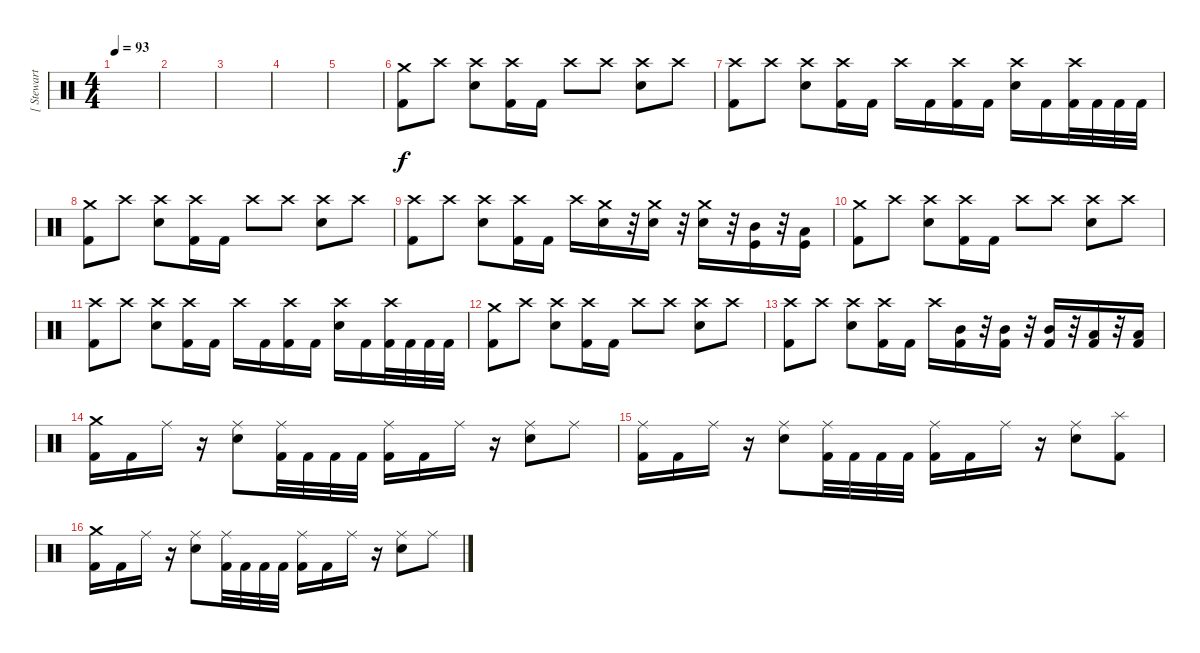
\track ("[ Stewart ]" "[ Stewart ") {instrument percussion}
\staff {score}
\articulation defaults
\ts (4 4)
\tempo 93
\clef neutral
\ks c
|
|
|
|
|
("Kick (hit) 2" "Crash medium (hit)").8 "Crash high (hit)".8 ("Electric Snare (hit)" "Crash high (hit)").8 ("Kick (hit) 2" "Crash high (hit)").16 "Kick (hit) 2".16 "Crash high (hit)".8 "Crash high (hit)".8 ("Electric Snare (hit)" "Crash high (hit)").8 "Crash high (hit)".8 |
("Kick (hit) 2" "Crash high (hit)").8 "Crash high (hit)".8 ("Electric Snare (hit)" "Crash high (hit)").8 ("Kick (hit) 2" "Crash high (hit)").16 "Kick (hit) 2".16 "Crash high (hit)".16 "Kick (hit) 2".16 ("Kick (hit) 2" "Crash high (hit)").16 "Kick (hit) 2".16 ("Electric Snare (hit)" "Crash high (hit)").16 "Kick (hit) 2".16 ("Kick (hit) 2" "Crash high (hit)").32 "Kick (hit) 2".32 "Kick (hit) 2".32 "Kick (hit) 2".32 |
("Kick (hit) 2" "Crash medium (hit)").8 "Crash high (hit)".8 ("Electric Snare (hit)" "Crash high (hit)").8 ("Kick (hit) 2" "Crash high (hit)").16 "Kick (hit) 2".16 "Crash high (hit)".8 "Crash high (hit)".8 ("Electric Snare (hit)" "Crash high (hit)").8 "Crash high (hit)".8 |
("Kick (hit) 2" "Crash high (hit)").8 "Crash high (hit)".8 ("Electric Snare (hit)" "Crash high (hit)").8 ("Kick (hit) 2" "Crash high (hit)").16 "Kick (hit) 2".16 "Crash high (hit)".16 ("Electric Snare (hit)" "Crash medium (hit)").16 r.32 ("Electric Snare (hit)" "Crash medium (hit)").16 r.32 ("Electric Snare (hit)" "Crash medium (hit)").16 r.32 ("Mid Tom (hit)" "Kick (hit)").16 r.32 ("Low Tom (hit)" "Kick (hit)").16 |
("Kick (hit) 2" "Crash medium (hit)").8 "Crash high (hit)".8 ("Electric Snare (hit)" "Crash high (hit)").8 ("Kick (hit) 2" "Crash high (hit)").16 "Kick (hit) 2".16 "Crash high (hit)".8 "Crash high (hit)".8 ("Electric Snare (hit)" "Crash high (hit)").8 "Crash high (hit)".8 |
("Kick (hit) 2" "Crash high (hit)").8 "Crash high (hit)".8 ("Electric Snare (hit)" "Crash high (hit)").8 ("Kick (hit) 2" "Crash high (hit)").16 "Kick (hit) 2".16 "Crash high (hit)".16 "Kick (hit) 2".16 ("Kick (hit) 2" "Crash high (hit)").16 "Kick (hit) 2".16 ("Electric Snare (hit)" "Crash high (hit)").16 "Kick (hit) 2".16 ("Kick (hit) 2" "Crash high (hit)").32 "Kick (hit) 2".32 "Kick (hit) 2".32 "Kick (hit) 2".32 |
("Kick (hit) 2" "Crash medium (hit)").8 "Crash high (hit)".8 ("Electric Snare (hit)" "Crash high (hit)").8 ("Kick (hit) 2" "Crash high (hit)").16 "Kick (hit) 2".16 "Crash high (hit)".8 "Crash high (hit)".8 ("Electric Snare (hit)" "Crash high (hit)").8 "Crash high (hit)".8 |
("Kick (hit) 2" "Crash high (hit)").8 "Crash high (hit)".8 ("Electric Snare (hit)" "Crash high (hit)").8 ("Kick (hit) 2" "Crash high (hit)").16 "Kick (hit) 2".16 "Crash high (hit)".16 ("Mid Tom (hit)" "Kick (hit) 2").16 r.32 ("Mid Tom (hit)" "Kick (hit) 2").16 r.32 ("Mid Tom (hit)" "Kick (hit) 2").16 r.32 ("Low Tom (hit)" "Kick (hit) 2").16 r.32 ("Low Tom (hit)" "Kick (hit) 2").16 |
("Kick (hit) 2" "Crash medium (hit)").16 "Kick (hit) 2".16 "Ride (middle)".16 r.16 ("Electric Snare (hit)" "Ride (middle)").8 ("Kick (hit) 2" "Ride (middle)").32 "Kick (hit) 2".32 "Kick (hit) 2".32 "Kick (hit) 2".32 ("Kick (hit) 2" "Ride (middle)").16 "Kick (hit) 2".16 "Ride (middle)".16 r.16 ("Electric Snare (hit)" "Ride (middle)").8 "Ride (middle)".8 |
("Kick (hit) 2" "Ride (middle)").16 "Kick (hit) 2".16 "Ride (middle)".16 r.16 ("Electric Snare (hit)" "Ride (middle)").8 ("Kick (hit) 2" "Ride (middle)").32 "Kick (hit) 2".32 "Kick (hit) 2".32 "Kick (hit) 2".32 ("Kick (hit) 2" "Ride (middle)").16 "Kick (hit) 2".16 "Ride (middle)".16 r.16 ("Electric Snare (hit)" "Ride (middle)").8 ("Kick (hit) 2" "Splash (hit)").8 |
("Kick (hit) 2" "Crash medium (hit)").16 "Kick (hit) 2".16 "Ride (middle)".16 r.16 ("Electric Snare (hit)" "Ride (middle)").8 ("Kick (hit) 2" "Ride (middle)").32 "Kick (hit) 2".32 "Kick (hit) 2".32 "Kick (hit) 2".32 ("Kick (hit) 2" "Ride (middle)").16 "Kick (hit) 2".16 "Ride (middle)".16 r.16 ("Electric Snare (hit)" "Ride (middle)").8 "Ride (middle)".8
